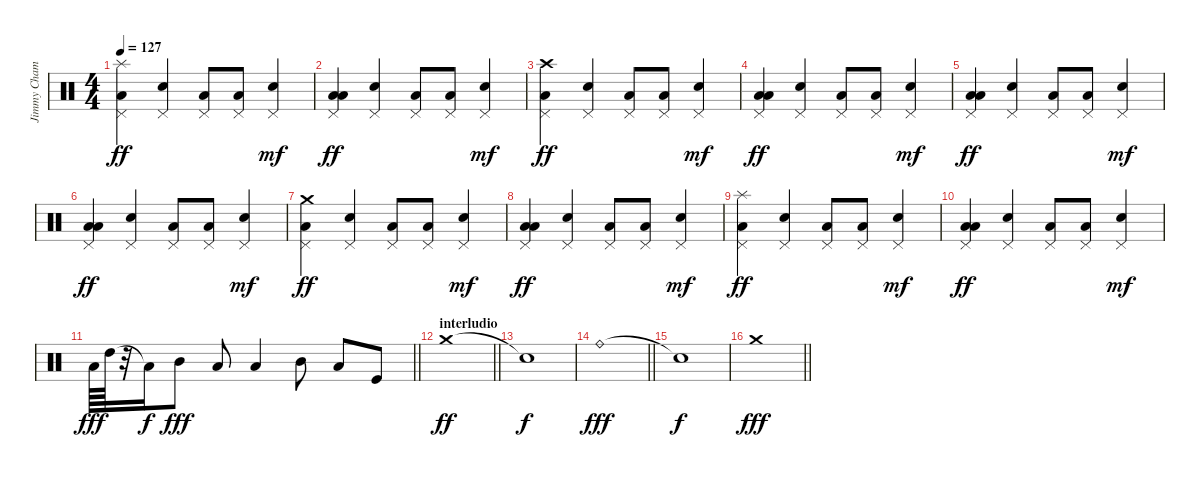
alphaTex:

\track ("Jimmy Chamberlin" "Jimmy Cham") {instrument percussion}
\staff {score}
\articulation defaults
\ts (4 4)
\tempo 127
\clef neutral
\ks c
("Splash (hit)" "Low Tom (hit)" "Pedal Hi-Hat (hit)").4{dy ff} ("Snare (hit) 2" "Pedal Hi-Hat (hit)").4 ("Low Floor Tom (hit)" "Pedal Hi-Hat (hit)").8 ("Low Floor Tom (hit)" "Pedal Hi-Hat (hit)").8 ("Snare (hit) 2" "Pedal Hi-Hat (hit)").4{dy mf} |
("Low Floor Tom (hit)" "Low Tom (hit)" "Pedal Hi-Hat (hit)").4{dy ff} ("Snare (hit) 2" "Pedal Hi-Hat (hit)").4 ("Low Floor Tom (hit)" "Pedal Hi-Hat (hit)").8 ("Low Floor Tom (hit)" "Pedal Hi-Hat (hit)").8 ("Snare (hit) 2" "Pedal Hi-Hat (hit)").4{dy mf} |
("Crash high (hit)" "Low Tom (hit)" "Pedal Hi-Hat (hit)").4{dy ff} ("Snare (hit) 2" "Pedal Hi-Hat (hit)").4 ("Low Floor Tom (hit)" "Pedal Hi-Hat (hit)").8 ("Low Floor Tom (hit)" "Pedal Hi-Hat (hit)").8 ("Snare (hit) 2" "Pedal Hi-Hat (hit)").4{dy mf} |
("Low Floor Tom (hit)" "Low Tom (hit)" "Pedal Hi-Hat (hit)").4{dy ff} ("Snare (hit) 2" "Pedal Hi-Hat (hit)").4 ("Low Floor Tom (hit)" "Pedal Hi-Hat (hit)").8 ("Low Floor Tom (hit)" "Pedal Hi-Hat (hit)").8 ("Snare (hit) 2" "Pedal Hi-Hat (hit)").4{dy mf} |
("Low Floor Tom (hit)" "Low Tom (hit)" "Pedal Hi-Hat (hit)").4{dy ff} ("Snare (hit) 2" "Pedal Hi-Hat (hit)").4 ("Low Floor Tom (hit)" "Pedal Hi-Hat (hit)").8 ("Low Floor Tom (hit)" "Pedal Hi-Hat (hit)").8 ("Snare (hit) 2" "Pedal Hi-Hat (hit)").4{dy mf} |
("Low Floor Tom (hit)" "Low Tom (hit)" "Pedal Hi-Hat (hit)").4{dy ff} ("Snare (hit) 2" "Pedal Hi-Hat (hit)").4 ("Low Floor Tom (hit)" "Pedal Hi-Hat (hit)").8 ("Low Floor Tom (hit)" "Pedal Hi-Hat (hit)").8 ("Snare (hit) 2" "Pedal Hi-Hat (hit)").4{dy mf} |
("Crash medium (hit)" "Low Tom (hit)" "Pedal Hi-Hat (hit)").4{dy ff} ("Snare (hit) 2" "Pedal Hi-Hat (hit)").4 ("Low Floor Tom (hit)" "Pedal Hi-Hat (hit)").8 ("Low Floor Tom (hit)" "Pedal Hi-Hat (hit)").8 ("Snare (hit) 2" "Pedal Hi-Hat (hit)").4{dy mf} |
("Low Floor Tom (hit)" "Low Tom (hit)" "Pedal Hi-Hat (hit)").4{dy ff} ("Snare (hit) 2" "Pedal Hi-Hat (hit)").4 ("Low Floor Tom (hit)" "Pedal Hi-Hat (hit)").8 ("Low Floor Tom (hit)" "Pedal Hi-Hat (hit)").8 ("Snare (hit) 2" "Pedal Hi-Hat (hit)").4{dy mf} |
("Splash (hit)" "Low Tom (hit)" "Pedal Hi-Hat (hit)").4{dy ff} ("Snare (hit) 2" "Pedal Hi-Hat (hit)").4 ("Low Floor Tom (hit)" "Pedal Hi-Hat (hit)").8 ("Low Floor Tom (hit)" "Pedal Hi-Hat (hit)").8 ("Snare (hit) 2" "Pedal Hi-Hat (hit)").4{dy mf} |
("Low Floor Tom (hit)" "Low Tom (hit)" "Pedal Hi-Hat (hit)").4{dy ff} ("Snare (hit) 2" "Pedal Hi-Hat (hit)").4 ("Low Floor Tom (hit)" "Pedal Hi-Hat (hit)").8 ("Low Floor Tom (hit)" "Pedal Hi-Hat (hit)").8 ("Snare (hit) 2" "Pedal Hi-Hat (hit)").4{dy mf} |
\barLineRight lightlight "Low Tom (hit)".64{dy fff} "High Tom (hit)".64
r.32 "Low Floor Tom (hit)"{t}.16{dy f} "Mid Tom (hit)".8{dy fff} "Low Tom (hit)".8 "Low Floor Tom (hit)".4 "Mid Tom (hit)".8 "Low Floor Tom (hit)".8 "Kick (hit)".8 |
\section ("" "interludio")
\barLineRight lightlight "Crash medium (hit)".1{dy ff}
|
"Snare (hit)"{t}.1{dy f} |
\barLineRight lightlight "Ride (bell)".1{dy fff}
|
"Snare (hit)"{t}.1{dy f} |
\barLineRight lightlight "Crash medium (hit)".1{dy fff}
